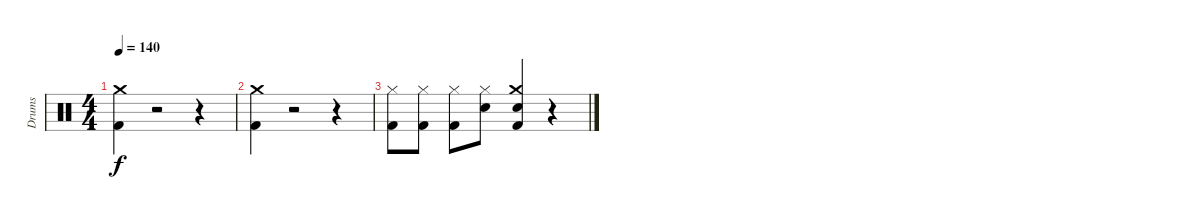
\track ("Drums" "Drums") {instrument percussion}
\staff {score}
\articulation defaults
\ts (4 4)
\tempo 140
\clef neutral
\ks c
("Kick (hit) 2" "Crash medium (hit)").4{dy f} r.2 r.4 |
("Crash medium (hit)" "Kick (hit) 2").4 r.2 r.4 |
("Hi-Hat (closed)" "Kick (hit) 2").8 ("Hi-Hat (closed)" "Kick (hit) 2").8 ("Hi-Hat (closed)" "Kick (hit) 2").8 ("Snare (hit) 2" "Hi-Hat (closed)").8 ("Kick (hit) 2" "Snare (hit) 2" "Crash medium (hit)").4 r.4
